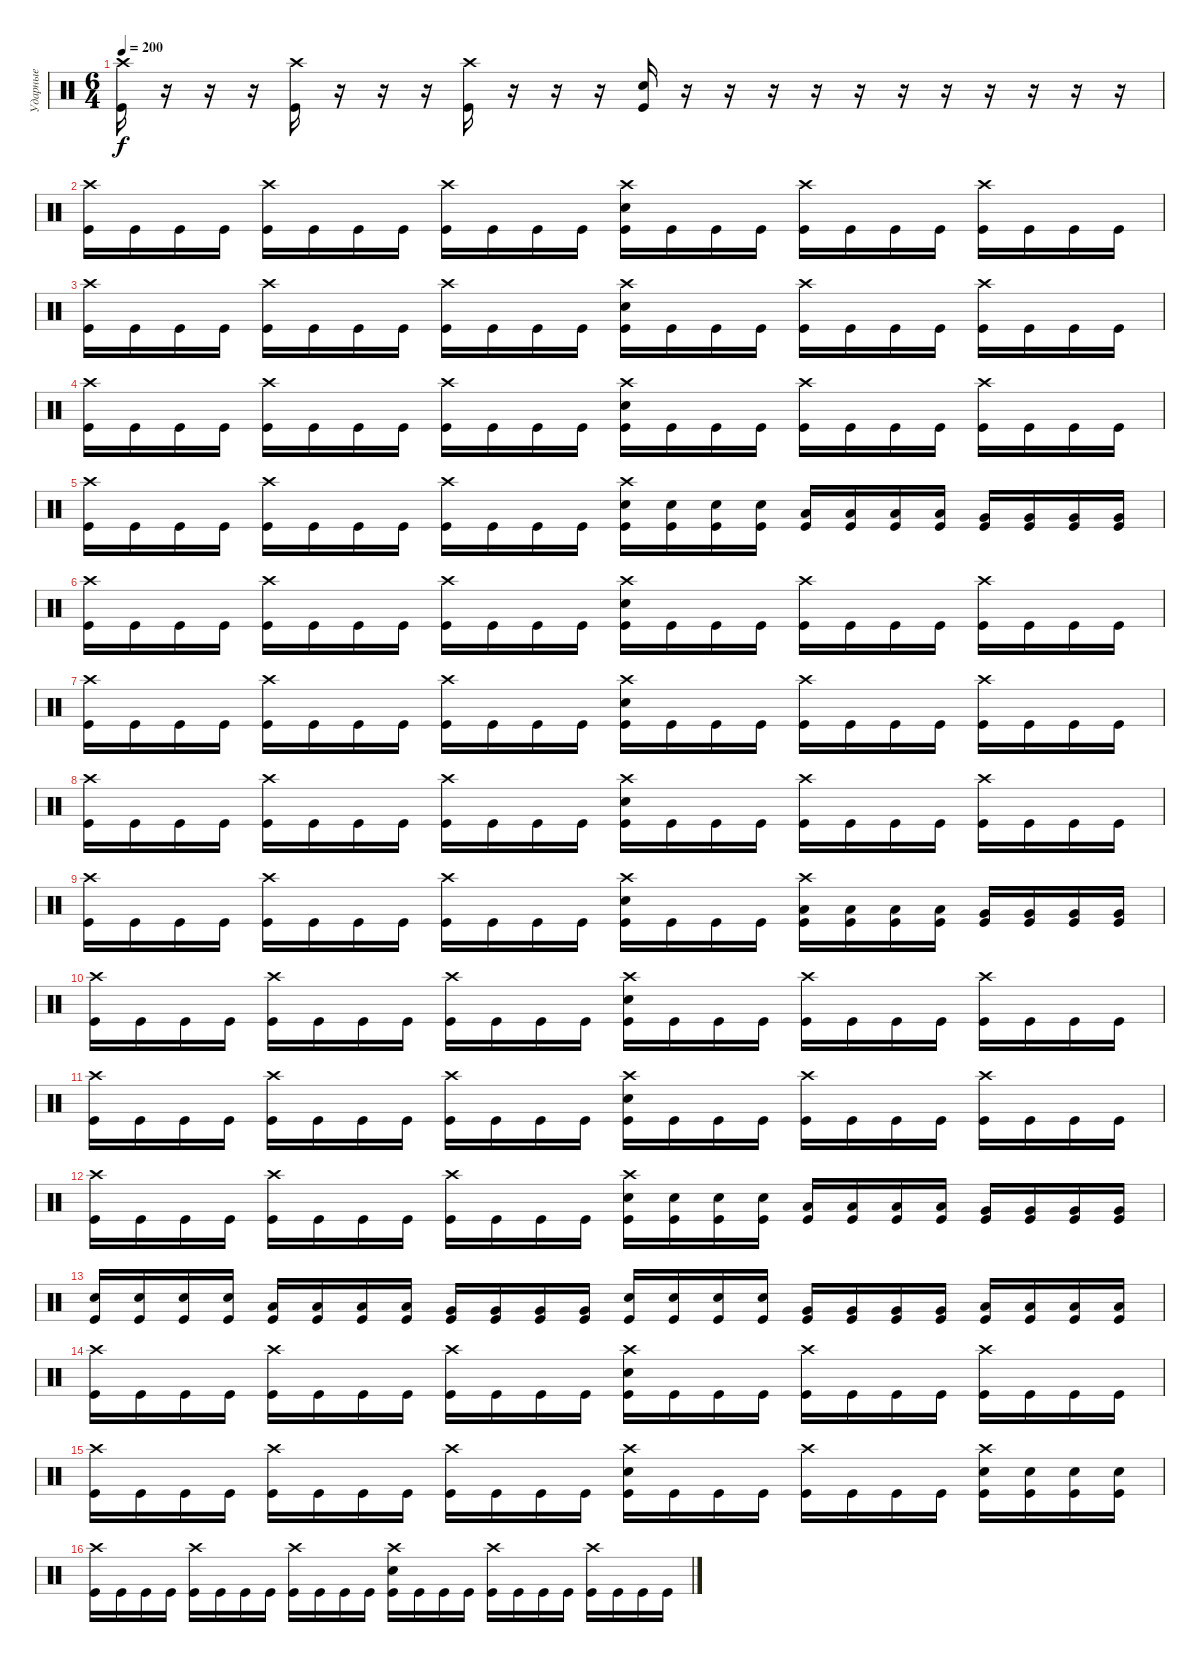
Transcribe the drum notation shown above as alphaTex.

\track ("Ударные" "Ударные") {instrument percussion}
\staff {score}
\articulation defaults
\ts (6 4)
\tempo 200
\clef neutral
\ks c
("Crash high (hit)" "Kick (hit)").16{dy f} r.16 r.16 r.16 ("Crash high (hit)" "Kick (hit)").16 r.16 r.16 r.16 ("Crash high (hit)" "Kick (hit)").16 r.16 r.16 r.16 ("Snare (hit) 2" "Kick (hit)").16 r.16 r.16 r.16 r.16 r.16 r.16 r.16 r.16 r.16 r.16 r.16 |
("Crash high (hit)" "Kick (hit)").16 "Kick (hit)".16 "Kick (hit)".16 "Kick (hit)".16 ("Crash high (hit)" "Kick (hit)").16 "Kick (hit)".16 "Kick (hit)".16 "Kick (hit)".16 ("Crash high (hit)" "Kick (hit)").16 "Kick (hit)".16 "Kick (hit)".16 "Kick (hit)".16 ("Crash high (hit)" "Snare (hit) 2" "Kick (hit)").16 "Kick (hit)".16 "Kick (hit)".16 "Kick (hit)".16 ("Crash high (hit)" "Kick (hit)").16 "Kick (hit)".16 "Kick (hit)".16 "Kick (hit)".16 ("Crash high (hit)" "Kick (hit)").16 "Kick (hit)".16 "Kick (hit)".16 "Kick (hit)".16 |
("Crash high (hit)" "Kick (hit)").16 "Kick (hit)".16 "Kick (hit)".16 "Kick (hit)".16 ("Crash high (hit)" "Kick (hit)").16 "Kick (hit)".16 "Kick (hit)".16 "Kick (hit)".16 ("Crash high (hit)" "Kick (hit)").16 "Kick (hit)".16 "Kick (hit)".16 "Kick (hit)".16 ("Crash high (hit)" "Snare (hit) 2" "Kick (hit)").16 "Kick (hit)".16 "Kick (hit)".16 "Kick (hit)".16 ("Crash high (hit)" "Kick (hit)").16 "Kick (hit)".16 "Kick (hit)".16 "Kick (hit)".16 ("Crash high (hit)" "Kick (hit)").16 "Kick (hit)".16 "Kick (hit)".16 "Kick (hit)".16 |
("Crash high (hit)" "Kick (hit)").16 "Kick (hit)".16 "Kick (hit)".16 "Kick (hit)".16 ("Crash high (hit)" "Kick (hit)").16 "Kick (hit)".16 "Kick (hit)".16 "Kick (hit)".16 ("Crash high (hit)" "Kick (hit)").16 "Kick (hit)".16 "Kick (hit)".16 "Kick (hit)".16 ("Crash high (hit)" "Snare (hit) 2" "Kick (hit)").16 "Kick (hit)".16 "Kick (hit)".16 "Kick (hit)".16 ("Crash high (hit)" "Kick (hit)").16 "Kick (hit)".16 "Kick (hit)".16 "Kick (hit)".16 ("Crash high (hit)" "Kick (hit)").16 "Kick (hit)".16 "Kick (hit)".16 "Kick (hit)".16 |
("Crash high (hit)" "Kick (hit)").16 "Kick (hit)".16 "Kick (hit)".16 "Kick (hit)".16 ("Crash high (hit)" "Kick (hit)").16 "Kick (hit)".16 "Kick (hit)".16 "Kick (hit)".16 ("Crash high (hit)" "Kick (hit)").16 "Kick (hit)".16 "Kick (hit)".16 "Kick (hit)".16 ("Crash high (hit)" "Snare (hit) 2" "Kick (hit)").16 ("Snare (hit) 2" "Kick (hit)").16 ("Snare (hit) 2" "Kick (hit)").16 ("Snare (hit) 2" "Kick (hit)").16 ("Low Tom (hit)" "Kick (hit)").16 ("Low Tom (hit)" "Kick (hit)").16 ("Low Tom (hit)" "Kick (hit)").16 ("Low Tom (hit)" "Kick (hit)").16 ("Very Low Tom (hit)" "Kick (hit)").16 ("Very Low Tom (hit)" "Kick (hit)").16 ("Very Low Tom (hit)" "Kick (hit)").16 ("Very Low Tom (hit)" "Kick (hit)").16 |
("Crash high (hit)" "Kick (hit)").16 "Kick (hit)".16 "Kick (hit)".16 "Kick (hit)".16 ("Crash high (hit)" "Kick (hit)").16 "Kick (hit)".16 "Kick (hit)".16 "Kick (hit)".16 ("Crash high (hit)" "Kick (hit)").16 "Kick (hit)".16 "Kick (hit)".16 "Kick (hit)".16 ("Crash high (hit)" "Snare (hit) 2" "Kick (hit)").16 "Kick (hit)".16 "Kick (hit)".16 "Kick (hit)".16 ("Crash high (hit)" "Kick (hit)").16 "Kick (hit)".16 "Kick (hit)".16 "Kick (hit)".16 ("Crash high (hit)" "Kick (hit)").16 "Kick (hit)".16 "Kick (hit)".16 "Kick (hit)".16 |
("Crash high (hit)" "Kick (hit)").16 "Kick (hit)".16 "Kick (hit)".16 "Kick (hit)".16 ("Crash high (hit)" "Kick (hit)").16 "Kick (hit)".16 "Kick (hit)".16 "Kick (hit)".16 ("Crash high (hit)" "Kick (hit)").16 "Kick (hit)".16 "Kick (hit)".16 "Kick (hit)".16 ("Crash high (hit)" "Snare (hit) 2" "Kick (hit)").16 "Kick (hit)".16 "Kick (hit)".16 "Kick (hit)".16 ("Crash high (hit)" "Kick (hit)").16 "Kick (hit)".16 "Kick (hit)".16 "Kick (hit)".16 ("Crash high (hit)" "Kick (hit)").16 "Kick (hit)".16 "Kick (hit)".16 "Kick (hit)".16 |
("Crash high (hit)" "Kick (hit)").16 "Kick (hit)".16 "Kick (hit)".16 "Kick (hit)".16 ("Crash high (hit)" "Kick (hit)").16 "Kick (hit)".16 "Kick (hit)".16 "Kick (hit)".16 ("Crash high (hit)" "Kick (hit)").16 "Kick (hit)".16 "Kick (hit)".16 "Kick (hit)".16 ("Crash high (hit)" "Snare (hit) 2" "Kick (hit)").16 "Kick (hit)".16 "Kick (hit)".16 "Kick (hit)".16 ("Crash high (hit)" "Kick (hit)").16 "Kick (hit)".16 "Kick (hit)".16 "Kick (hit)".16 ("Crash high (hit)" "Kick (hit)").16 "Kick (hit)".16 "Kick (hit)".16 "Kick (hit)".16 |
("Crash high (hit)" "Kick (hit)").16 "Kick (hit)".16 "Kick (hit)".16 "Kick (hit)".16 ("Crash high (hit)" "Kick (hit)").16 "Kick (hit)".16 "Kick (hit)".16 "Kick (hit)".16 ("Crash high (hit)" "Kick (hit)").16 "Kick (hit)".16 "Kick (hit)".16 "Kick (hit)".16 ("Crash high (hit)" "Snare (hit) 2" "Kick (hit)").16 "Kick (hit)".16 "Kick (hit)".16 "Kick (hit)".16 ("Crash high (hit)" "Low Tom (hit)" "Kick (hit)").16 ("Low Tom (hit)" "Kick (hit)").16 ("Low Tom (hit)" "Kick (hit)").16 ("Low Tom (hit)" "Kick (hit)").16 ("Very Low Tom (hit)" "Kick (hit)").16 ("Very Low Tom (hit)" "Kick (hit)").16 ("Very Low Tom (hit)" "Kick (hit)").16 ("Very Low Tom (hit)" "Kick (hit)").16 |
("Crash high (hit)" "Kick (hit)").16 "Kick (hit)".16 "Kick (hit)".16 "Kick (hit)".16 ("Crash high (hit)" "Kick (hit)").16 "Kick (hit)".16 "Kick (hit)".16 "Kick (hit)".16 ("Crash high (hit)" "Kick (hit)").16 "Kick (hit)".16 "Kick (hit)".16 "Kick (hit)".16 ("Crash high (hit)" "Snare (hit) 2" "Kick (hit)").16 "Kick (hit)".16 "Kick (hit)".16 "Kick (hit)".16 ("Crash high (hit)" "Kick (hit)").16 "Kick (hit)".16 "Kick (hit)".16 "Kick (hit)".16 ("Crash high (hit)" "Kick (hit)").16 "Kick (hit)".16 "Kick (hit)".16 "Kick (hit)".16 |
("Crash high (hit)" "Kick (hit)").16 "Kick (hit)".16 "Kick (hit)".16 "Kick (hit)".16 ("Crash high (hit)" "Kick (hit)").16 "Kick (hit)".16 "Kick (hit)".16 "Kick (hit)".16 ("Crash high (hit)" "Kick (hit)").16 "Kick (hit)".16 "Kick (hit)".16 "Kick (hit)".16 ("Crash high (hit)" "Snare (hit) 2" "Kick (hit)").16 "Kick (hit)".16 "Kick (hit)".16 "Kick (hit)".16 ("Crash high (hit)" "Kick (hit)").16 "Kick (hit)".16 "Kick (hit)".16 "Kick (hit)".16 ("Crash high (hit)" "Kick (hit)").16 "Kick (hit)".16 "Kick (hit)".16 "Kick (hit)".16 |
("Crash high (hit)" "Kick (hit)").16 "Kick (hit)".16 "Kick (hit)".16 "Kick (hit)".16 ("Crash high (hit)" "Kick (hit)").16 "Kick (hit)".16 "Kick (hit)".16 "Kick (hit)".16 ("Crash high (hit)" "Kick (hit)").16 "Kick (hit)".16 "Kick (hit)".16 "Kick (hit)".16 ("Crash high (hit)" "Snare (hit) 2" "Kick (hit)").16 ("Snare (hit) 2" "Kick (hit)").16 ("Snare (hit) 2" "Kick (hit)").16 ("Snare (hit) 2" "Kick (hit)").16 ("Low Tom (hit)" "Kick (hit)").16 ("Low Tom (hit)" "Kick (hit)").16 ("Low Tom (hit)" "Kick (hit)").16 ("Low Tom (hit)" "Kick (hit)").16 ("Very Low Tom (hit)" "Kick (hit)").16 ("Very Low Tom (hit)" "Kick (hit)").16 ("Very Low Tom (hit)" "Kick (hit)").16 ("Very Low Tom (hit)" "Kick (hit)").16 |
("Snare (hit) 2" "Kick (hit)").16 ("Snare (hit) 2" "Kick (hit)").16 ("Snare (hit) 2" "Kick (hit)").16 ("Snare (hit) 2" "Kick (hit)").16 ("Low Tom (hit)" "Kick (hit)").16 ("Low Tom (hit)" "Kick (hit)").16 ("Low Tom (hit)" "Kick (hit)").16 ("Low Tom (hit)" "Kick (hit)").16 ("Very Low Tom (hit)" "Kick (hit)").16 ("Very Low Tom (hit)" "Kick (hit)").16 ("Very Low Tom (hit)" "Kick (hit)").16 ("Very Low Tom (hit)" "Kick (hit)").16 ("Snare (hit) 2" "Kick (hit)").16 ("Snare (hit) 2" "Kick (hit)").16 ("Snare (hit) 2" "Kick (hit)").16 ("Snare (hit) 2" "Kick (hit)").16 ("Very Low Tom (hit)" "Kick (hit)").16 ("Very Low Tom (hit)" "Kick (hit)").16 ("Very Low Tom (hit)" "Kick (hit)").16 ("Very Low Tom (hit)" "Kick (hit)").16 ("Low Floor Tom (hit)" "Kick (hit)").16 ("Low Floor Tom (hit)" "Kick (hit)").16 ("Low Floor Tom (hit)" "Kick (hit)").16 ("Low Floor Tom (hit)" "Kick (hit)").16 |
("Crash high (hit)" "Kick (hit)").16 "Kick (hit)".16 "Kick (hit)".16 "Kick (hit)".16 ("Crash high (hit)" "Kick (hit)").16 "Kick (hit)".16 "Kick (hit)".16 "Kick (hit)".16 ("Crash high (hit)" "Kick (hit)").16 "Kick (hit)".16 "Kick (hit)".16 "Kick (hit)".16 ("Crash high (hit)" "Snare (hit) 2" "Kick (hit)").16 "Kick (hit)".16 "Kick (hit)".16 "Kick (hit)".16 ("Crash high (hit)" "Kick (hit)").16 "Kick (hit)".16 "Kick (hit)".16 "Kick (hit)".16 ("Crash high (hit)" "Kick (hit)").16 "Kick (hit)".16 "Kick (hit)".16 "Kick (hit)".16 |
("Crash high (hit)" "Kick (hit)").16 "Kick (hit)".16 "Kick (hit)".16 "Kick (hit)".16 ("Crash high (hit)" "Kick (hit)").16 "Kick (hit)".16 "Kick (hit)".16 "Kick (hit)".16 ("Crash high (hit)" "Kick (hit)").16 "Kick (hit)".16 "Kick (hit)".16 "Kick (hit)".16 ("Crash high (hit)" "Snare (hit) 2" "Kick (hit)").16 "Kick (hit)".16 "Kick (hit)".16 "Kick (hit)".16 ("Crash high (hit)" "Kick (hit)").16 "Kick (hit)".16 "Kick (hit)".16 "Kick (hit)".16 ("Crash high (hit)" "Snare (hit) 2" "Kick (hit)").16 ("Snare (hit) 2" "Kick (hit)").16 ("Snare (hit) 2" "Kick (hit)").16 ("Snare (hit) 2" "Kick (hit)").16 |
("Crash high (hit)" "Kick (hit)").16 "Kick (hit)".16 "Kick (hit)".16 "Kick (hit)".16 ("Crash high (hit)" "Kick (hit)").16 "Kick (hit)".16 "Kick (hit)".16 "Kick (hit)".16 ("Crash high (hit)" "Kick (hit)").16 "Kick (hit)".16 "Kick (hit)".16 "Kick (hit)".16 ("Crash high (hit)" "Snare (hit) 2" "Kick (hit)").16 "Kick (hit)".16 "Kick (hit)".16 "Kick (hit)".16 ("Crash high (hit)" "Kick (hit)").16 "Kick (hit)".16 "Kick (hit)".16 "Kick (hit)".16 ("Crash high (hit)" "Kick (hit)").16 "Kick (hit)".16 "Kick (hit)".16 "Kick (hit)".16
